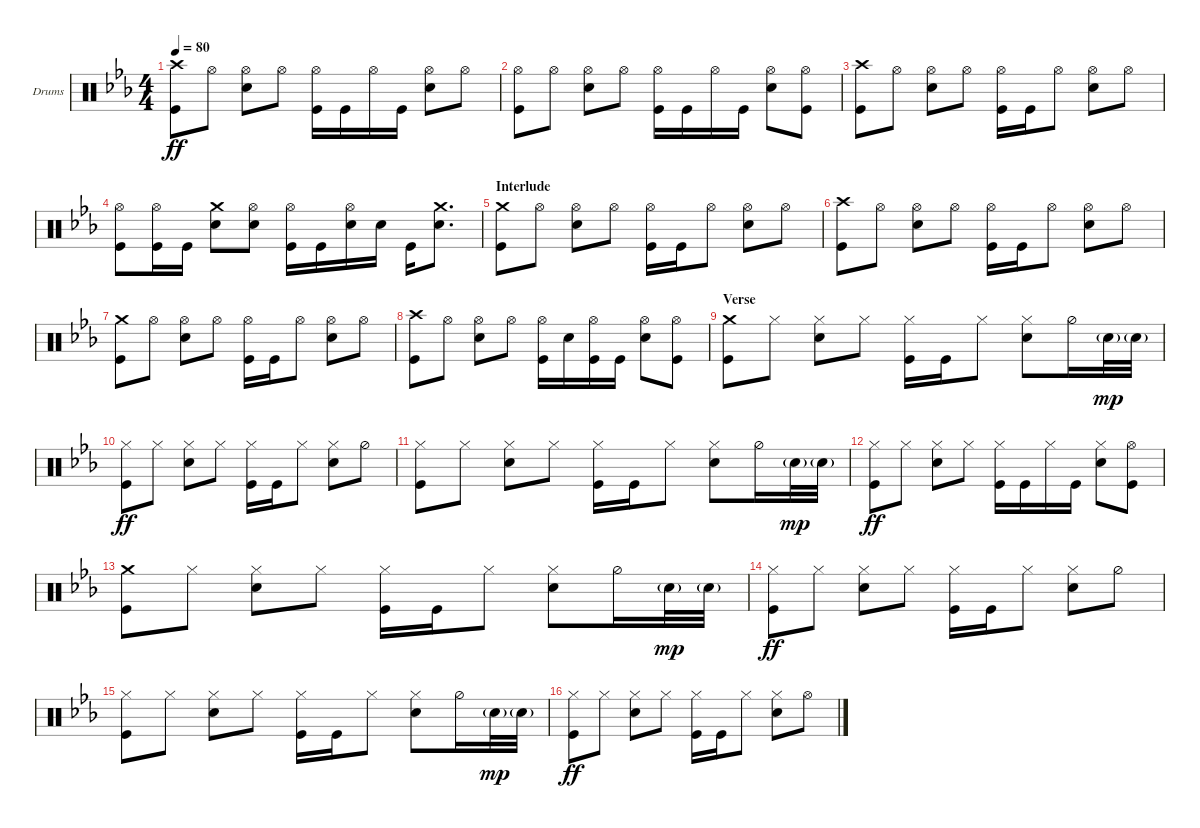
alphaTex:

\defaultSystemsLayout 4
\bracketExtendMode groupsimilarinstruments
\firstSystemTrackNameOrientation horizontal
\otherSystemsTrackNameOrientation horizontal
\track ("Mario Goossens" "Drums") {instrument percussion}
\staff {score}
\articulation defaults
\ts (4 4)
\tempo 80
\clef neutral
\ks cminor
("Kick (hit)" "Crash high (hit)").8{dy ff} "Hi-Hat (open)".8 ("Hi-Hat (open)" "Snare (hit) 2").8 "Hi-Hat (open)".8 ("Kick (hit)" "Hi-Hat (open)").16 "Kick (hit)".16 "Hi-Hat (open)".16 "Kick (hit)".16 ("Hi-Hat (open)" "Snare (hit) 2").8 "Hi-Hat (open)".8 |
("Kick (hit)" "Hi-Hat (open)").8 "Hi-Hat (open)".8 ("Hi-Hat (open)" "Snare (hit) 2").8 "Hi-Hat (open)".8 ("Kick (hit)" "Hi-Hat (open)").16 "Kick (hit)".16 "Hi-Hat (open)".16 "Kick (hit)".16 ("Snare (hit) 2" "Hi-Hat (open)").8 ("Hi-Hat (open)" "Kick (hit)").8 |
("Kick (hit)" "Crash high (hit)").8 "Hi-Hat (open)".8 ("Hi-Hat (open)" "Snare (hit) 2").8 "Hi-Hat (open)".8 ("Kick (hit)" "Hi-Hat (open)").16 "Kick (hit)".16 "Hi-Hat (open)".8 ("Hi-Hat (open)" "Snare (hit) 2").8 "Hi-Hat (open)".8 |
("Kick (hit)" "Hi-Hat (open)").8 ("Kick (hit)" "Hi-Hat (open)").16 "Kick (hit)".16 ("Snare (hit) 2" "Crash medium (hit)").8 ("Snare (hit) 2" "Hi-Hat (open)").8 ("Kick (hit)" "Hi-Hat (open)").16 "Kick (hit)".16 ("Snare (hit) 2" "Hi-Hat (open)").16 "Snare (hit) 2".16 "Kick (hit)".16 ("Snare (hit) 2" "Crash medium (hit)").8{d} |
\section ("" "Interlude")
("Kick (hit)" "Crash medium (hit)").8 "Hi-Hat (open)".8 ("Hi-Hat (open)" "Snare (hit) 2").8 "Hi-Hat (open)".8 ("Kick (hit)" "Hi-Hat (open)").16 "Kick (hit)".16 "Hi-Hat (open)".8 ("Hi-Hat (open)" "Snare (hit) 2").8 "Hi-Hat (open)".8 |
("Kick (hit)" "Crash high (hit)").8 "Hi-Hat (open)".8 ("Hi-Hat (open)" "Snare (hit) 2").8 "Hi-Hat (open)".8 ("Kick (hit)" "Hi-Hat (open)").16 "Kick (hit)".16 "Hi-Hat (open)".8 ("Hi-Hat (open)" "Snare (hit) 2").8 "Hi-Hat (open)".8 |
("Kick (hit)" "Crash medium (hit)").8 "Hi-Hat (open)".8 ("Hi-Hat (open)" "Snare (hit) 2").8 "Hi-Hat (open)".8 ("Kick (hit)" "Hi-Hat (open)").16 "Kick (hit)".16 "Hi-Hat (open)".8 ("Hi-Hat (open)" "Snare (hit) 2").8 "Hi-Hat (open)".8 |
("Kick (hit)" "Crash high (hit)").8 "Hi-Hat (open)".8 ("Hi-Hat (open)" "Snare (hit) 2").8 "Hi-Hat (open)".8 ("Kick (hit)" "Hi-Hat (open)").16 "Snare (hit) 2".16 ("Hi-Hat (open)" "Kick (hit)").16 "Kick (hit)".16 ("Hi-Hat (open)" "Snare (hit) 2").8 ("Hi-Hat (open)" "Kick (hit)").8 |
\section ("" "Verse")
("Kick (hit)" "Crash medium (hit)").8 "Hi-Hat (closed)".8 ("Hi-Hat (closed)" "Snare (hit) 2").8 "Hi-Hat (closed)".8 ("Kick (hit)" "Hi-Hat (closed)").16 "Kick (hit)".16 "Hi-Hat (closed)".8 ("Hi-Hat (closed)" "Snare (hit) 2").8 "Hi-Hat (half)".16 "Snare (hit) 2"{g}.32{dy mp} "Snare (hit) 2"{g}.32 |
("Kick (hit)" "Hi-Hat (closed)").8{dy ff} "Hi-Hat (closed)".8 ("Hi-Hat (closed)" "Snare (hit) 2").8 "Hi-Hat (closed)".8 ("Kick (hit)" "Hi-Hat (closed)").16 "Kick (hit)".16 "Hi-Hat (closed)".8 ("Hi-Hat (closed)" "Snare (hit) 2").8 "Hi-Hat (half)".8 |
("Kick (hit)" "Hi-Hat (closed)").8 "Hi-Hat (closed)".8 ("Hi-Hat (closed)" "Snare (hit) 2").8 "Hi-Hat (closed)".8 ("Kick (hit)" "Hi-Hat (closed)").16 "Kick (hit)".16 "Hi-Hat (closed)".8 ("Hi-Hat (closed)" "Snare (hit) 2").8 "Hi-Hat (half)".16 "Snare (hit) 2"{g}.32{dy mp} "Snare (hit) 2"{g}.32 |
("Kick (hit)" "Hi-Hat (closed)").8{dy ff} "Hi-Hat (closed)".8 ("Hi-Hat (closed)" "Snare (hit) 2").8 "Hi-Hat (closed)".8 ("Kick (hit)" "Hi-Hat (closed)").16 "Kick (hit)".16 "Hi-Hat (closed)".16 "Kick (hit)".16 ("Hi-Hat (closed)" "Snare (hit) 2").8 ("Hi-Hat (open)" "Kick (hit)").8 |
("Kick (hit)" "Crash medium (hit)").8 "Hi-Hat (closed)".8 ("Hi-Hat (closed)" "Snare (hit) 2").8 "Hi-Hat (closed)".8 ("Kick (hit)" "Hi-Hat (closed)").16 "Kick (hit)".16 "Hi-Hat (closed)".8 ("Hi-Hat (closed)" "Snare (hit) 2").8 "Hi-Hat (half)".16 "Snare (hit) 2"{g}.32{dy mp} "Snare (hit) 2"{g}.32 |
("Kick (hit)" "Hi-Hat (closed)").8{dy ff} "Hi-Hat (closed)".8 ("Hi-Hat (closed)" "Snare (hit) 2").8 "Hi-Hat (closed)".8 ("Kick (hit)" "Hi-Hat (closed)").16 "Kick (hit)".16 "Hi-Hat (closed)".8 ("Hi-Hat (closed)" "Snare (hit) 2").8 "Hi-Hat (half)".8 |
("Kick (hit)" "Hi-Hat (closed)").8 "Hi-Hat (closed)".8 ("Hi-Hat (closed)" "Snare (hit) 2").8 "Hi-Hat (closed)".8 ("Kick (hit)" "Hi-Hat (closed)").16 "Kick (hit)".16 "Hi-Hat (closed)".8 ("Hi-Hat (closed)" "Snare (hit) 2").8 "Hi-Hat (half)".16 "Snare (hit) 2"{g}.32{dy mp} "Snare (hit) 2"{g}.32 |
("Kick (hit)" "Hi-Hat (closed)").8{dy ff} "Hi-Hat (closed)".8 ("Hi-Hat (closed)" "Snare (hit) 2").8 "Hi-Hat (closed)".8 ("Kick (hit)" "Hi-Hat (closed)").16 "Kick (hit)".16 "Hi-Hat (closed)".8 ("Hi-Hat (closed)" "Snare (hit) 2").8 "Hi-Hat (open)".8
